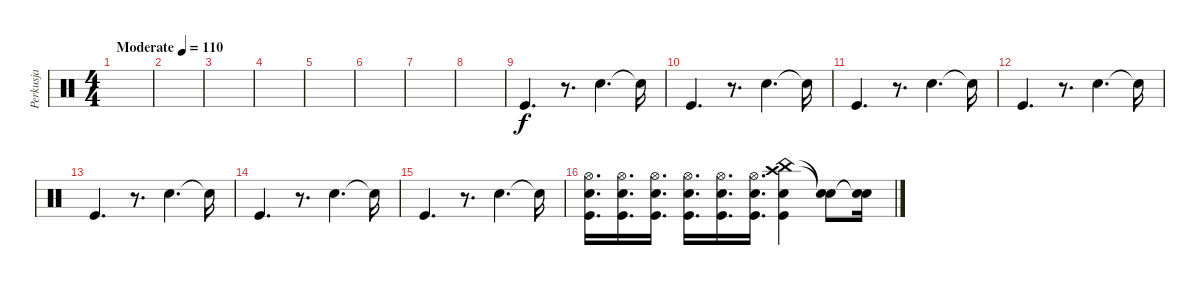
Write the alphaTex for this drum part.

\track ("Perkusja" "Perkusja") {instrument percussion}
\staff {score}
\articulation defaults
\ts (4 4)
\tempo (110 "Moderate")
\clef neutral
\ks c
|
|
|
|
|
|
|
|
"Kick (hit)".4{d} r.8{d} "Snare (hit) 2".4{d} "Snare (hit)"{t}.16 |
"Kick (hit)".4{d} r.8{d} "Snare (hit) 2".4{d} "Snare (hit)"{t}.16 |
"Kick (hit)".4{d} r.8{d} "Snare (hit) 2".4{d} "Snare (hit)"{t}.16 |
"Kick (hit)".4{d} r.8{d} "Snare (hit) 2".4{d} "Snare (hit)"{t}.16 |
"Kick (hit)".4{d} r.8{d} "Snare (hit) 2".4{d} "Snare (hit)"{t}.16 |
"Kick (hit)".4{d} r.8{d} "Snare (hit) 2".4{d} "Snare (hit)"{t}.16 |
"Kick (hit)".4{d} r.8{d} "Snare (hit) 2".4{d} "Snare (hit)"{t}.16 |
("Hi-Hat (open)" "Snare (hit) 2" "Kick (hit)").16{d} ("Hi-Hat (open)" "Snare (hit) 2" "Kick (hit)").16{d} ("Hi-Hat (open)" "Snare (hit) 2" "Kick (hit)").16{d} ("Hi-Hat (open)" "Snare (hit) 2" "Kick (hit)").16{d} ("Hi-Hat (open)" "Snare (hit) 2" "Kick (hit)").16{d} ("Hi-Hat (open)" "Snare (hit) 2" "Kick (hit)").16{d} ("China (hit)" "Crash high (hit)" "Snare (hit) 2" "Kick (hit)").4 ("Snare (hit)"{t} "Snare (hit)"{t}).8 ("Snare (hit)"{t} "Snare (hit)"{t}).16
